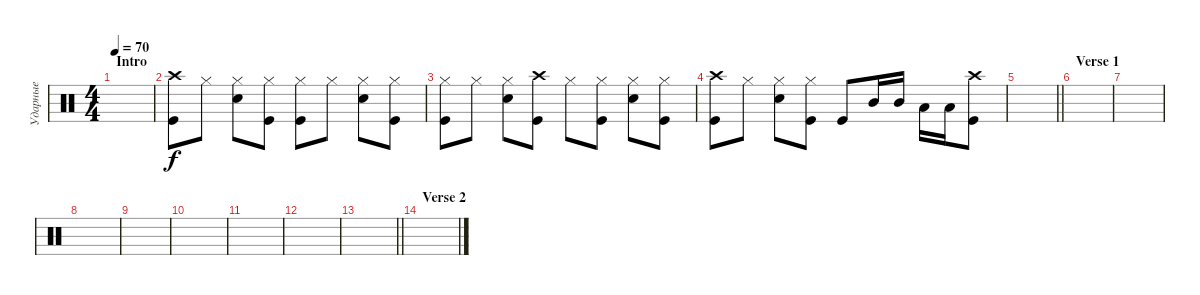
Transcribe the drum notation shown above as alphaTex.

\track ("Ударные" "Ударные") {instrument percussion}
\staff {score}
\articulation defaults
\ts (4 4)
\section ("" "Intro")
\tempo 70
\clef neutral
\ks c
|
("Kick (hit)" "Crash high (hit)").8 "Hi-Hat (closed)".8 ("Hi-Hat (closed)" "Snare (hit) 2").8 ("Hi-Hat (closed)" "Kick (hit)").8 ("Hi-Hat (closed)" "Kick (hit)").8 "Hi-Hat (closed)".8 ("Hi-Hat (closed)" "Snare (hit) 2").8 ("Hi-Hat (closed)" "Kick (hit)").8 |
("Kick (hit)" "Hi-Hat (closed)").8 "Hi-Hat (closed)".8 ("Hi-Hat (closed)" "Snare (hit) 2").8 ("Crash high (hit)" "Kick (hit)").8 "Hi-Hat (closed)".8 ("Hi-Hat (closed)" "Kick (hit)").8 ("Hi-Hat (closed)" "Snare (hit) 2").8 ("Hi-Hat (closed)" "Kick (hit)").8 |
("Kick (hit)" "Crash high (hit)").8 "Hi-Hat (closed)".8 ("Hi-Hat (closed)" "Snare (hit) 2").8 ("Hi-Hat (closed)" "Kick (hit)").8 "Kick (hit)".8 "Mid Tom (hit)".16 "Mid Tom (hit)".16 "Low Tom (hit)".16 "Low Tom (hit)".16 ("Kick (hit)" "Crash high (hit)").8 |
\barLineRight lightlight
|
\section ("" "Verse 1")
|
|
|
|
|
|
|
\barLineRight lightlight
|
\section ("" "Verse 2")
